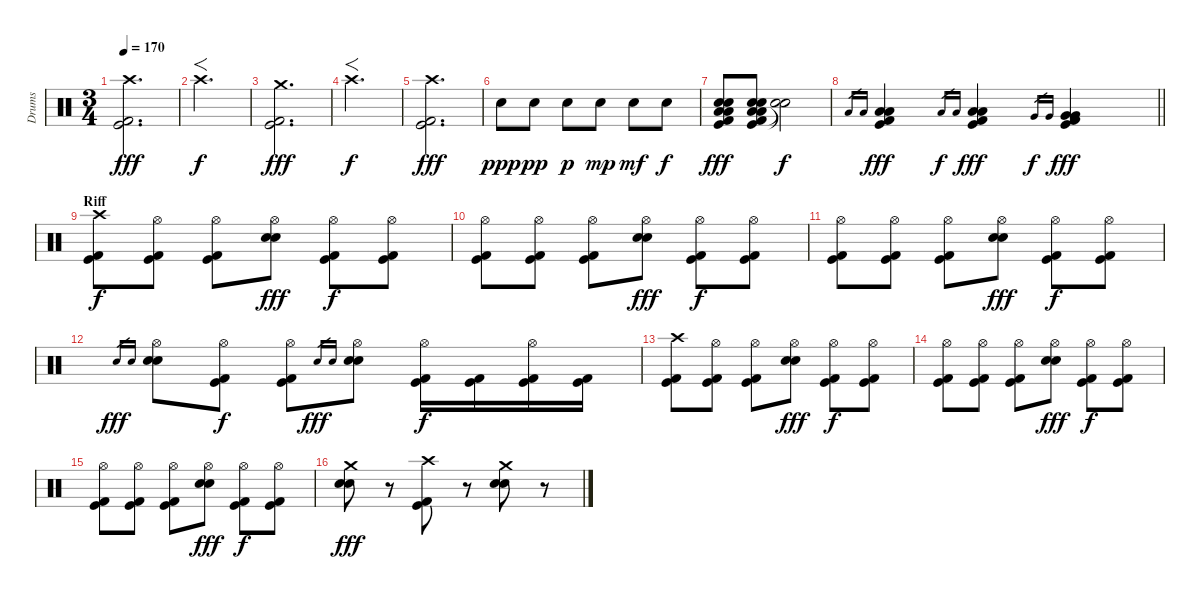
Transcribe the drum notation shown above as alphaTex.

\track ("Drums" "Drums") {instrument percussion}
\staff {score}
\articulation defaults
\ts (3 4)
\tempo 170
\clef neutral
\ks c
("Crash high (hit)" "Kick (hit) 2" "Kick (hit)").2{d dy fff} |
"Crash high (hit)".2{f d dy f} |
("Crash medium (hit)" "Kick (hit) 2" "Kick (hit)").2{d dy fff} |
"Crash high (hit)".2{f d dy f} |
("Crash high (hit)" "Kick (hit) 2" "Kick (hit)").2{d dy fff} |
"Electric Snare (hit)".8{dy ppp} "Electric Snare (hit)".8{dy pp} "Electric Snare (hit)".8{dy p} "Electric Snare (hit)".8{dy mp} "Electric Snare (hit)".8{dy mf} "Electric Snare (hit)".8{dy f} |
("Kick (hit)" "Kick (hit) 2" "Low Floor Tom (hit)" "Electric Snare (hit)" "Low Floor Tom (hit)" "Electric Snare (hit)").8{dy fff} ("Kick (hit)" "Kick (hit) 2" "Low Floor Tom (hit)" "Electric Snare (hit)" "Low Floor Tom (hit)" "Electric Snare (hit)").8 ("Snare (hit)"{t} "Snare (hit)"{t}).2{dy f} |
\barLineRight lightlight "Low Tom (hit)".16{gr} "Low Tom (hit)".16{gr}
("Kick (hit)" "Kick (hit) 2" "Low Tom (hit)" "Low Tom (hit)").4{dy fff} "Low Tom (hit)".16{gr dy f} "Low Tom (hit)".16{gr} ("Kick (hit)" "Kick (hit) 2" "Low Tom (hit)" "Low Tom (hit)").4{dy fff} "Very Low Tom (hit)".16{gr dy f} "Very Low Tom (hit)".16{gr} ("Kick (hit)" "Kick (hit) 2" "Very Low Tom (hit)" "Very Low Tom (hit)").4{dy fff} |
\section ("" "Riff")
("Crash high (hit)" "Kick (hit)" "Kick (hit) 2").8{dy f} ("Hi-Hat (open)" "Kick (hit)" "Kick (hit) 2").8 ("Hi-Hat (open)" "Kick (hit)" "Kick (hit) 2").8 ("Hi-Hat (open)" "Electric Snare (hit)" "Electric Snare (hit)").8{dy fff} ("Hi-Hat (open)" "Kick (hit)" "Kick (hit) 2").8{dy f} ("Hi-Hat (open)" "Kick (hit)" "Kick (hit) 2").8 |
("Hi-Hat (open)" "Kick (hit)" "Kick (hit) 2").8 ("Hi-Hat (open)" "Kick (hit)" "Kick (hit) 2").8 ("Hi-Hat (open)" "Kick (hit)" "Kick (hit) 2").8 ("Hi-Hat (open)" "Electric Snare (hit)" "Electric Snare (hit)").8{dy fff} ("Hi-Hat (open)" "Kick (hit)" "Kick (hit) 2").8{dy f} ("Hi-Hat (open)" "Kick (hit)" "Kick (hit) 2").8 |
("Hi-Hat (open)" "Kick (hit)" "Kick (hit) 2").8 ("Hi-Hat (open)" "Kick (hit)" "Kick (hit) 2").8 ("Hi-Hat (open)" "Kick (hit)" "Kick (hit) 2").8 ("Hi-Hat (open)" "Electric Snare (hit)" "Electric Snare (hit)").8{dy fff} ("Hi-Hat (open)" "Kick (hit)" "Kick (hit) 2").8{dy f} ("Hi-Hat (open)" "Kick (hit)" "Kick (hit) 2").8 |
"Electric Snare (hit)".16{gr dy fff} "Electric Snare (hit)".16{gr} ("Hi-Hat (open)" "Electric Snare (hit)" "Electric Snare (hit)").8 ("Hi-Hat (open)" "Kick (hit)" "Kick (hit) 2").8{dy f} ("Hi-Hat (open)" "Kick (hit)" "Kick (hit) 2").8 "Electric Snare (hit)".16{gr dy fff} "Electric Snare (hit)".16{gr} ("Hi-Hat (open)" "Electric Snare (hit)" "Electric Snare (hit)").8 ("Hi-Hat (open)" "Kick (hit)" "Kick (hit) 2").16{dy f} ("Kick (hit)" "Kick (hit) 2").16 ("Hi-Hat (open)" "Kick (hit)" "Kick (hit) 2").16 ("Kick (hit)" "Kick (hit) 2").16 |
("Crash high (hit)" "Kick (hit)" "Kick (hit) 2").8 ("Hi-Hat (open)" "Kick (hit)" "Kick (hit) 2").8 ("Hi-Hat (open)" "Kick (hit)" "Kick (hit) 2").8 ("Hi-Hat (open)" "Electric Snare (hit)" "Electric Snare (hit)").8{dy fff} ("Hi-Hat (open)" "Kick (hit)" "Kick (hit) 2").8{dy f} ("Hi-Hat (open)" "Kick (hit)" "Kick (hit) 2").8 |
("Hi-Hat (open)" "Kick (hit)" "Kick (hit) 2").8 ("Hi-Hat (open)" "Kick (hit)" "Kick (hit) 2").8 ("Hi-Hat (open)" "Kick (hit)" "Kick (hit) 2").8 ("Hi-Hat (open)" "Electric Snare (hit)" "Electric Snare (hit)").8{dy fff} ("Hi-Hat (open)" "Kick (hit)" "Kick (hit) 2").8{dy f} ("Hi-Hat (open)" "Kick (hit)" "Kick (hit) 2").8 |
("Hi-Hat (open)" "Kick (hit)" "Kick (hit) 2").8 ("Hi-Hat (open)" "Kick (hit)" "Kick (hit) 2").8 ("Hi-Hat (open)" "Kick (hit)" "Kick (hit) 2").8 ("Hi-Hat (open)" "Electric Snare (hit)" "Electric Snare (hit)").8{dy fff} ("Hi-Hat (open)" "Kick (hit)" "Kick (hit) 2").8{dy f} ("Hi-Hat (open)" "Kick (hit)" "Kick (hit) 2").8 |
("Crash medium (hit)" "Electric Snare (hit)" "Electric Snare (hit)").8{dy fff} r.8{volume 0} ("Crash high (hit)" "Kick (hit)" "Kick (hit) 2").8{volume 16} r.8{volume 0} ("Crash medium (hit)" "Electric Snare (hit)" "Electric Snare (hit)").8{volume 16} r.8{volume 0}
